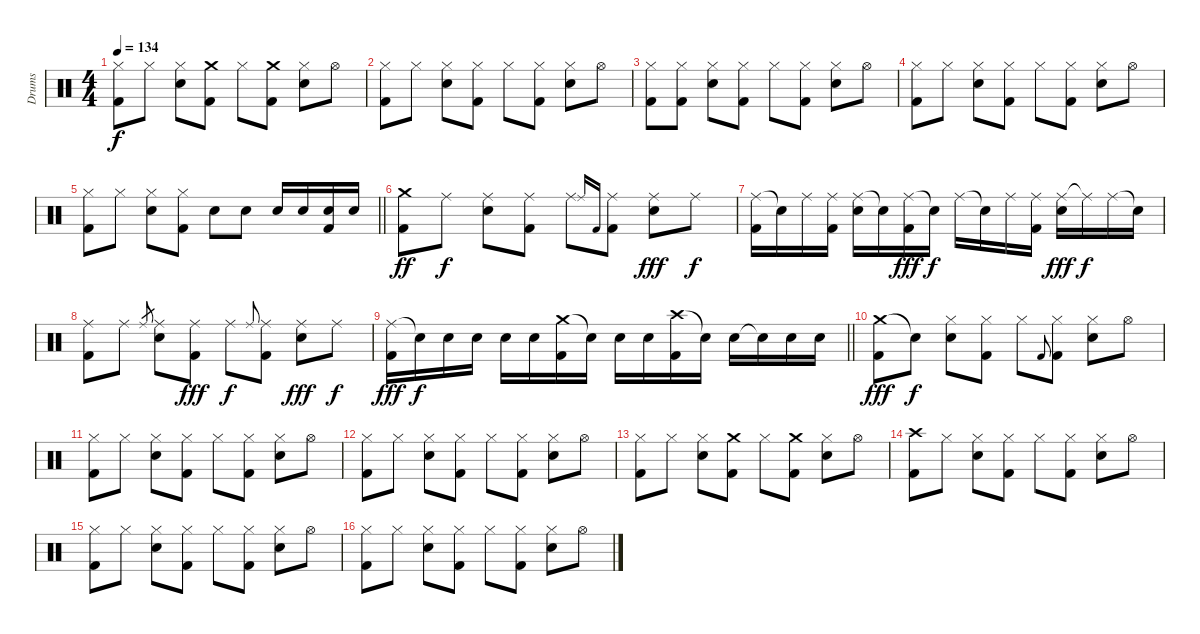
\track ("Drums" "Drums") {instrument percussion}
\staff {score}
\articulation defaults
\ts (4 4)
\tempo 134
\clef neutral
\ks c
("Hi-Hat (closed)" "Kick (hit) 2").8{dy f} "Hi-Hat (closed)".8 ("Hi-Hat (closed)" "Snare (hit) 2").8 ("Crash medium (hit)" "Kick (hit) 2").8 "Hi-Hat (closed)".8 ("Crash medium (hit)" "Kick (hit) 2").8 ("Hi-Hat (closed)" "Snare (hit) 2").8 "Hi-Hat (open)".8 |
("Hi-Hat (closed)" "Kick (hit) 2").8 "Hi-Hat (closed)".8 ("Hi-Hat (closed)" "Snare (hit) 2").8 ("Hi-Hat (closed)" "Kick (hit) 2").8 "Hi-Hat (closed)".8 ("Hi-Hat (closed)" "Kick (hit) 2").8 ("Hi-Hat (closed)" "Snare (hit) 2").8 "Hi-Hat (open)".8 |
("Hi-Hat (closed)" "Kick (hit) 2").8 ("Hi-Hat (closed)" "Kick (hit) 2").8 ("Hi-Hat (closed)" "Snare (hit) 2").8 ("Hi-Hat (closed)" "Kick (hit) 2").8 "Hi-Hat (closed)".8 ("Hi-Hat (closed)" "Kick (hit) 2").8 ("Hi-Hat (closed)" "Snare (hit) 2").8 "Hi-Hat (open)".8 |
("Hi-Hat (closed)" "Kick (hit) 2").8 "Hi-Hat (closed)".8 ("Hi-Hat (closed)" "Snare (hit) 2").8 ("Hi-Hat (closed)" "Kick (hit) 2").8 "Hi-Hat (closed)".8 ("Hi-Hat (closed)" "Kick (hit) 2").8 ("Hi-Hat (closed)" "Snare (hit) 2").8 "Hi-Hat (open)".8 |
\barLineRight lightlight
("Hi-Hat (closed)" "Kick (hit) 2").8 "Hi-Hat (closed)".8 ("Hi-Hat (closed)" "Snare (hit) 2").8 ("Hi-Hat (closed)" "Kick (hit) 2").8 "Snare (hit) 2".8 "Snare (hit) 2".8 "Snare (hit) 2".16 "Snare (hit) 2".16 ("Snare (hit) 2" "Kick (hit) 2").16 "Snare (hit) 2".16 |
("Crash medium (hit)" "Kick (hit) 2").8{dy ff} "Ride (middle)".8{dy f} ("Ride (middle)" "Snare (hit) 2").8 ("Ride (middle)" "Kick (hit) 2").8 "Ride (middle)".8 "Ride (middle)".16{gr onbeat} "Kick (hit) 2".16{gr onbeat} ("Ride (middle)" "Kick (hit) 2").8 ("Ride (middle)" "Snare (hit) 2").8{dy fff} "Ride (middle)".8{dy f} |
("Ride (middle)" "Kick (hit) 2").16 "Snare (hit)"{t}.16 "Ride (middle)".16 ("Ride (middle)" "Kick (hit) 2").16 ("Ride (middle)" "Snare (hit) 2").16 "Snare (hit)"{t}.16 ("Ride (middle)" "Kick (hit) 2").16{dy fff} "Snare (hit)"{t}.16{dy f} "Ride (middle)".16 "Snare (hit)"{t}.16 "Ride (middle)".16 ("Ride (middle)" "Kick (hit) 2").16 ("Ride (middle)" "Snare (hit) 2").16{dy fff} "Ride (middle)"{t}.16{dy f} "Ride (middle)".16 "Snare (hit)"{t}.16 |
("Ride (middle)" "Kick (hit) 2").8 "Ride (middle)".8 "Ride (middle)".8{gr} ("Ride (middle)" "Snare (hit) 2").8 ("Ride (middle)" "Kick (hit) 2").8{dy fff} "Ride (middle)".8{dy f} "Ride (middle)".8{gr onbeat} ("Ride (middle)" "Kick (hit) 2").8 ("Ride (middle)" "Snare (hit) 2").8{dy fff} "Ride (middle)".8{dy f} |
\barLineRight lightlight
("Ride (middle)" "Kick (hit) 2").16{dy fff} "Snare (hit)"{t}.16{dy f} "Snare (hit) 2".16 "Snare (hit) 2".16 "Snare (hit) 2".16 "Snare (hit) 2".16 ("Crash medium (hit)" "Kick (hit) 2").16 "Snare (hit)"{t}.16 "Snare (hit) 2".16 "Snare (hit) 2".16 ("Crash high (hit)" "Kick (hit) 2").16 "Snare (hit)"{t}.16 "Snare (hit) 2".16 "Snare (hit)"{t}.16 "Snare (hit) 2".16 "Snare (hit) 2".16 |
("Crash medium (hit)" "Kick (hit) 2").8{dy fff volume 16 balance 8} "Snare (hit)"{t}.8{dy f} ("Hi-Hat (closed)" "Snare (hit) 2").8 ("Hi-Hat (closed)" "Kick (hit) 2").8 "Hi-Hat (closed)".8 "Kick (hit) 2".8{gr onbeat} ("Hi-Hat (closed)" "Kick (hit) 2").8 ("Hi-Hat (closed)" "Snare (hit) 2").8 "Hi-Hat (open)".8 |
("Hi-Hat (closed)" "Kick (hit) 2").8 "Hi-Hat (closed)".8 ("Hi-Hat (closed)" "Snare (hit) 2").8 ("Hi-Hat (closed)" "Kick (hit) 2").8 "Hi-Hat (closed)".8 ("Hi-Hat (closed)" "Kick (hit) 2").8 ("Hi-Hat (closed)" "Snare (hit) 2").8 "Hi-Hat (open)".8 |
("Hi-Hat (closed)" "Kick (hit) 2").8 "Hi-Hat (closed)".8 ("Hi-Hat (closed)" "Snare (hit) 2").8 ("Hi-Hat (closed)" "Kick (hit) 2").8 "Hi-Hat (closed)".8 ("Hi-Hat (closed)" "Kick (hit) 2").8 ("Hi-Hat (closed)" "Snare (hit) 2").8 "Hi-Hat (open)".8 |
("Hi-Hat (closed)" "Kick (hit) 2").8 "Hi-Hat (closed)".8 ("Hi-Hat (closed)" "Snare (hit) 2").8 ("Crash medium (hit)" "Kick (hit) 2").8 "Hi-Hat (closed)".8 ("Crash medium (hit)" "Kick (hit) 2").8 ("Hi-Hat (closed)" "Snare (hit) 2").8 "Hi-Hat (open)".8 |
("Crash high (hit)" "Kick (hit) 2").8 "Hi-Hat (closed)".8 ("Hi-Hat (closed)" "Snare (hit) 2").8 ("Hi-Hat (closed)" "Kick (hit) 2").8 "Hi-Hat (closed)".8 ("Hi-Hat (closed)" "Kick (hit) 2").8 ("Hi-Hat (closed)" "Snare (hit) 2").8 "Hi-Hat (open)".8 |
("Hi-Hat (closed)" "Kick (hit) 2").8 "Hi-Hat (closed)".8 ("Hi-Hat (closed)" "Snare (hit) 2").8 ("Hi-Hat (closed)" "Kick (hit) 2").8 "Hi-Hat (closed)".8 ("Hi-Hat (closed)" "Kick (hit) 2").8 ("Hi-Hat (closed)" "Snare (hit) 2").8 "Hi-Hat (open)".8 |
("Hi-Hat (closed)" "Kick (hit) 2").8 "Hi-Hat (closed)".8 ("Hi-Hat (closed)" "Snare (hit) 2").8 ("Hi-Hat (closed)" "Kick (hit) 2").8 "Hi-Hat (closed)".8 ("Hi-Hat (closed)" "Kick (hit) 2").8 ("Hi-Hat (closed)" "Snare (hit) 2").8 "Hi-Hat (open)".8
